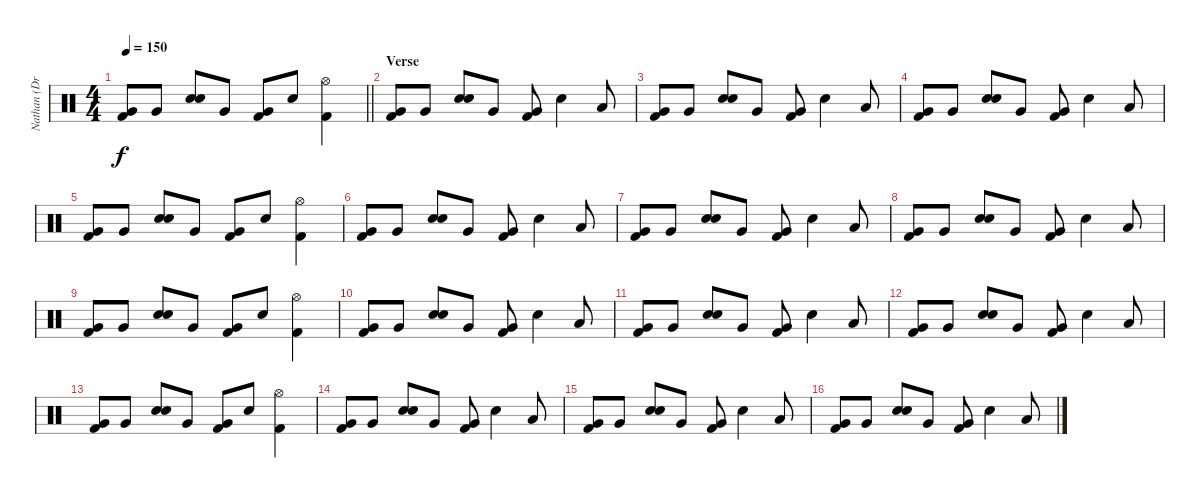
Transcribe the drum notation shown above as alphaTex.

\track ("Nathan (Drums)" "Nathan (Dr") {instrument percussion}
\staff {score}
\articulation defaults
\ts (4 4)
\tempo 150
\clef neutral
\barLineRight lightlight
\ks c
("Very Low Tom (hit)" "Kick (hit) 2").8{dy f} "Very Low Tom (hit)".8 ("Electric Snare (hit)" "Electric Snare (hit)").8 "Very Low Tom (hit)".8 ("Very Low Tom (hit)" "Kick (hit) 2").8 "Electric Snare (hit)".8 ("Hi-Hat (open)" "Kick (hit) 2").4 |
\section ("" "Verse")
("Very Low Tom (hit)" "Kick (hit) 2").8 "Very Low Tom (hit)".8 ("Electric Snare (hit)" "Electric Snare (hit)").8 "Very Low Tom (hit)".8 ("Very Low Tom (hit)" "Kick (hit) 2").8 "Electric Snare (hit)".4 "Low Tom (hit)".8 |
("Very Low Tom (hit)" "Kick (hit) 2").8 "Very Low Tom (hit)".8 ("Electric Snare (hit)" "Electric Snare (hit)").8 "Very Low Tom (hit)".8 ("Very Low Tom (hit)" "Kick (hit) 2").8 "Electric Snare (hit)".4 "Low Tom (hit)".8 |
("Very Low Tom (hit)" "Kick (hit) 2").8 "Very Low Tom (hit)".8 ("Electric Snare (hit)" "Electric Snare (hit)").8 "Very Low Tom (hit)".8 ("Very Low Tom (hit)" "Kick (hit) 2").8 "Electric Snare (hit)".4 "Low Tom (hit)".8 |
("Very Low Tom (hit)" "Kick (hit) 2").8 "Very Low Tom (hit)".8 ("Electric Snare (hit)" "Electric Snare (hit)").8 "Very Low Tom (hit)".8 ("Very Low Tom (hit)" "Kick (hit) 2").8 "Electric Snare (hit)".8 ("Hi-Hat (open)" "Kick (hit) 2").4 |
("Very Low Tom (hit)" "Kick (hit) 2").8 "Very Low Tom (hit)".8 ("Electric Snare (hit)" "Electric Snare (hit)").8 "Very Low Tom (hit)".8 ("Very Low Tom (hit)" "Kick (hit) 2").8 "Electric Snare (hit)".4 "Low Tom (hit)".8 |
("Very Low Tom (hit)" "Kick (hit) 2").8 "Very Low Tom (hit)".8 ("Electric Snare (hit)" "Electric Snare (hit)").8 "Very Low Tom (hit)".8 ("Very Low Tom (hit)" "Kick (hit) 2").8 "Electric Snare (hit)".4 "Low Tom (hit)".8 |
("Very Low Tom (hit)" "Kick (hit) 2").8 "Very Low Tom (hit)".8 ("Electric Snare (hit)" "Electric Snare (hit)").8 "Very Low Tom (hit)".8 ("Very Low Tom (hit)" "Kick (hit) 2").8 "Electric Snare (hit)".4 "Low Tom (hit)".8 |
("Very Low Tom (hit)" "Kick (hit) 2").8 "Very Low Tom (hit)".8 ("Electric Snare (hit)" "Electric Snare (hit)").8 "Very Low Tom (hit)".8 ("Very Low Tom (hit)" "Kick (hit) 2").8 "Electric Snare (hit)".8 ("Hi-Hat (open)" "Kick (hit) 2").4 |
("Very Low Tom (hit)" "Kick (hit) 2").8 "Very Low Tom (hit)".8 ("Electric Snare (hit)" "Electric Snare (hit)").8 "Very Low Tom (hit)".8 ("Very Low Tom (hit)" "Kick (hit) 2").8 "Electric Snare (hit)".4 "Low Tom (hit)".8 |
("Very Low Tom (hit)" "Kick (hit) 2").8 "Very Low Tom (hit)".8 ("Electric Snare (hit)" "Electric Snare (hit)").8 "Very Low Tom (hit)".8 ("Very Low Tom (hit)" "Kick (hit) 2").8 "Electric Snare (hit)".4 "Low Tom (hit)".8 |
("Very Low Tom (hit)" "Kick (hit) 2").8 "Very Low Tom (hit)".8 ("Electric Snare (hit)" "Electric Snare (hit)").8 "Very Low Tom (hit)".8 ("Very Low Tom (hit)" "Kick (hit) 2").8 "Electric Snare (hit)".4 "Low Tom (hit)".8 |
("Very Low Tom (hit)" "Kick (hit) 2").8 "Very Low Tom (hit)".8 ("Electric Snare (hit)" "Electric Snare (hit)").8 "Very Low Tom (hit)".8 ("Very Low Tom (hit)" "Kick (hit) 2").8 "Electric Snare (hit)".8 ("Hi-Hat (open)" "Kick (hit) 2").4 |
("Very Low Tom (hit)" "Kick (hit) 2").8 "Very Low Tom (hit)".8 ("Electric Snare (hit)" "Electric Snare (hit)").8 "Very Low Tom (hit)".8 ("Very Low Tom (hit)" "Kick (hit) 2").8 "Electric Snare (hit)".4 "Low Tom (hit)".8 |
("Very Low Tom (hit)" "Kick (hit) 2").8 "Very Low Tom (hit)".8 ("Electric Snare (hit)" "Electric Snare (hit)").8 "Very Low Tom (hit)".8 ("Very Low Tom (hit)" "Kick (hit) 2").8 "Electric Snare (hit)".4 "Low Tom (hit)".8 |
("Very Low Tom (hit)" "Kick (hit) 2").8 "Very Low Tom (hit)".8 ("Electric Snare (hit)" "Electric Snare (hit)").8 "Very Low Tom (hit)".8 ("Very Low Tom (hit)" "Kick (hit) 2").8 "Electric Snare (hit)".4 "Low Tom (hit)".8
